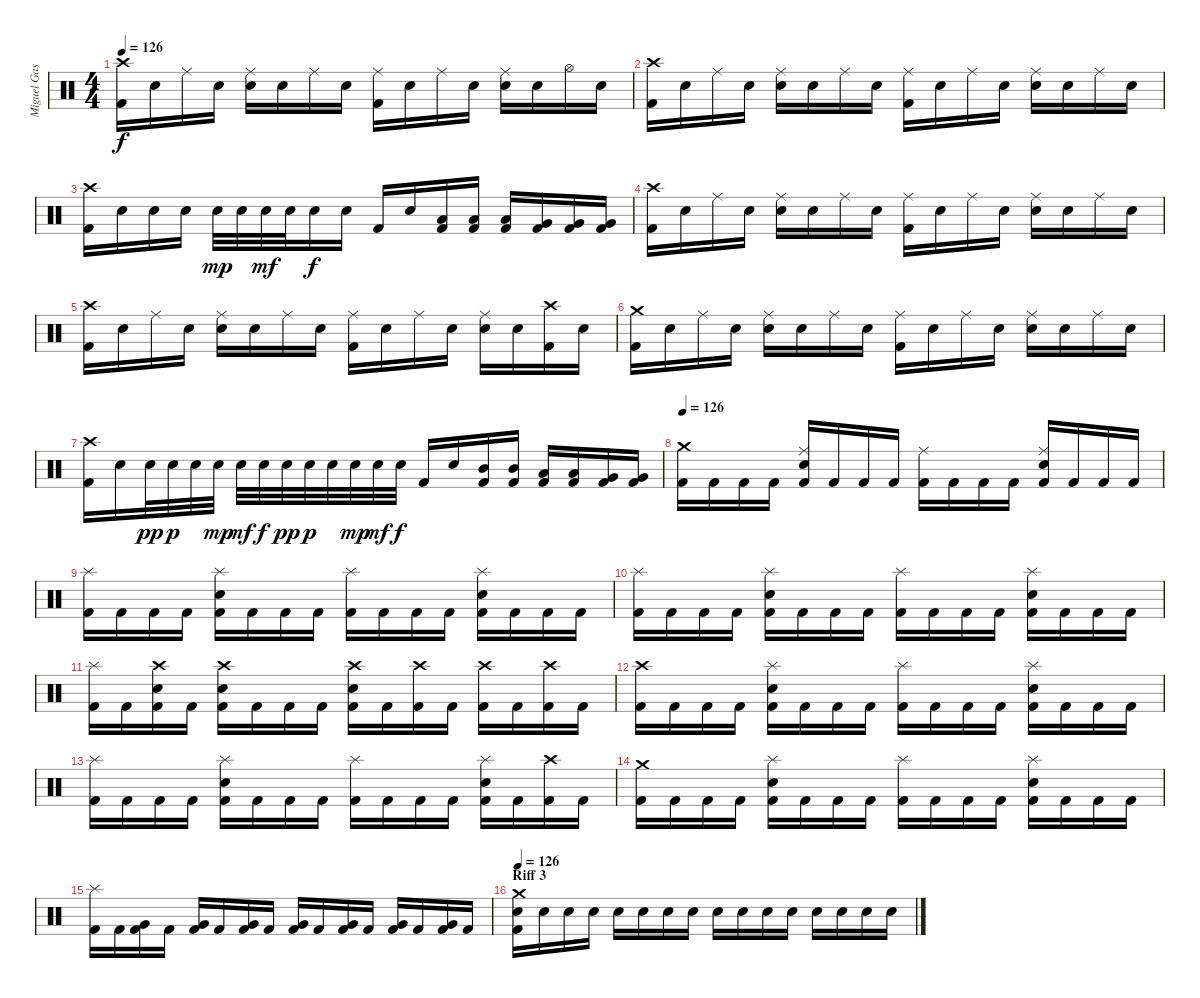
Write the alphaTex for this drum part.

\track ("Miguel Gaspar - Drums" "Miguel Gas") {instrument percussion}
\staff {score}
\articulation defaults
\ts (4 4)
\tempo 126
\clef neutral
\ks c
("Crash high (hit)" "Kick (hit) 2").16{dy f} "Snare (hit)".16 "Ride (middle)".16 "Snare (hit)".16 ("Ride (middle)" "Electric Snare (hit)").16 "Snare (hit)".16 "Ride (middle)".16 "Snare (hit)".16 ("Ride (middle)" "Kick (hit) 2").16 "Snare (hit)".16 "Ride (middle)".16 "Snare (hit)".16 ("Ride (middle)" "Electric Snare (hit)").16 "Snare (hit)".16 "Hi-Hat (open)".16 "Snare (hit)".16 |
("Crash high (hit)" "Kick (hit) 2").16 "Snare (hit)".16 "Ride (middle)".16 "Snare (hit)".16 ("Ride (middle)" "Electric Snare (hit)").16 "Snare (hit)".16 "Ride (middle)".16 "Snare (hit)".16 ("Ride (middle)" "Kick (hit) 2").16 "Snare (hit)".16 "Ride (middle)".16 "Snare (hit)".16 ("Ride (middle)" "Electric Snare (hit)").16 "Snare (hit)".16 "Ride (middle)".16 "Snare (hit)".16 |
("Crash high (hit)" "Kick (hit) 2").16 "Snare (hit)".16 "Snare (hit)".16 "Snare (hit)".16 "Electric Snare (hit)".32{dy mp} "Electric Snare (hit)".32 "Electric Snare (hit)".32{dy mf} "Electric Snare (hit)".32 "Electric Snare (hit)".16{dy f} "Snare (hit)".16 "Kick (hit) 2".16 "Snare (hit)".16 ("Low Tom (hit)" "Kick (hit) 2").16 ("Low Tom (hit)" "Kick (hit) 2").16 ("Low Tom (hit)" "Kick (hit) 2").16 ("Very Low Tom (hit)" "Kick (hit) 2").16 ("Very Low Tom (hit)" "Kick (hit) 2").16 ("Very Low Tom (hit)" "Kick (hit) 2").16 |
("Crash high (hit)" "Kick (hit) 2").16 "Snare (hit)".16 "Ride (middle)".16 "Snare (hit)".16 ("Ride (middle)" "Electric Snare (hit)").16 "Snare (hit)".16 "Ride (middle)".16 "Snare (hit)".16 ("Ride (middle)" "Kick (hit) 2").16 "Snare (hit)".16 "Ride (middle)".16 "Snare (hit)".16 ("Ride (middle)" "Electric Snare (hit)").16 "Snare (hit)".16 "Ride (middle)".16 "Snare (hit)".16 |
("Crash high (hit)" "Kick (hit) 2").16 "Snare (hit)".16 "Ride (middle)".16 "Snare (hit)".16 ("Ride (middle)" "Electric Snare (hit)").16 "Snare (hit)".16 "Ride (middle)".16 "Snare (hit)".16 ("Ride (middle)" "Kick (hit) 2").16 "Snare (hit)".16 "Ride (middle)".16 "Snare (hit)".16 ("Ride (middle)" "Electric Snare (hit)").16 "Snare (hit)".16 ("Crash high (hit)" "Kick (hit) 2").16 "Snare (hit)".16 |
("Crash medium (hit)" "Kick (hit) 2").16 "Snare (hit)".16 "Ride (middle)".16 "Snare (hit)".16 ("Ride (middle)" "Electric Snare (hit)").16 "Snare (hit)".16 "Ride (middle)".16 "Snare (hit)".16 ("Ride (middle)" "Kick (hit) 2").16 "Snare (hit)".16 "Ride (middle)".16 "Snare (hit)".16 ("Ride (middle)" "Electric Snare (hit)").16 "Snare (hit)".16 "Ride (middle)".16 "Snare (hit)".16 |
("Crash high (hit)" "Kick (hit) 2").16 "Snare (hit)".16 "Electric Snare (hit)".32{dy pp} "Electric Snare (hit)".32{dy p} "Electric Snare (hit)".32 "Electric Snare (hit)".32{dy mp} "Electric Snare (hit)".32{dy mf} "Electric Snare (hit)".32{dy f} "Electric Snare (hit)".32{dy pp} "Electric Snare (hit)".32{dy p} "Electric Snare (hit)".32 "Electric Snare (hit)".32{dy mp} "Electric Snare (hit)".32{dy mf} "Electric Snare (hit)".32{dy f} "Kick (hit) 2".16 "Snare (hit)".16 ("Mid Tom (hit)" "Kick (hit) 2").16 ("Mid Tom (hit)" "Kick (hit) 2").16 ("Low Tom (hit)" "Kick (hit) 2").16 ("Low Tom (hit)" "Kick (hit) 2").16 ("Very Low Tom (hit)" "Kick (hit) 2").16 ("Very Low Tom (hit)" "Kick (hit) 2").16 |
\section ("" "")
\tempo 126
("Crash medium (hit)" "Kick (hit) 2").16{volume 16 balance 8} "Kick (hit) 2".16 "Kick (hit) 2".16 "Kick (hit) 2".16 ("Ride (middle)" "Electric Snare (hit)" "Kick (hit) 2").16 "Kick (hit) 2".16 "Kick (hit) 2".16 "Kick (hit) 2".16 ("Ride (middle)" "Kick (hit) 2").16 "Kick (hit) 2".16 "Kick (hit) 2".16 "Kick (hit) 2".16 ("Ride (middle)" "Electric Snare (hit)" "Kick (hit) 2").16 "Kick (hit) 2".16 "Kick (hit) 2".16 "Kick (hit) 2".16 |
("Splash (hit)" "Kick (hit) 2").16 "Kick (hit) 2".16 "Kick (hit) 2".16 "Kick (hit) 2".16 ("Splash (hit)" "Electric Snare (hit)" "Kick (hit) 2").16 "Kick (hit) 2".16 "Kick (hit) 2".16 "Kick (hit) 2".16 ("Splash (hit)" "Kick (hit) 2").16 "Kick (hit) 2".16 "Kick (hit) 2".16 "Kick (hit) 2".16 ("Splash (hit)" "Electric Snare (hit)" "Kick (hit) 2").16 "Kick (hit) 2".16 "Kick (hit) 2".16 "Kick (hit) 2".16 |
("Splash (hit)" "Kick (hit) 2").16 "Kick (hit) 2".16 "Kick (hit) 2".16 "Kick (hit) 2".16 ("Splash (hit)" "Electric Snare (hit)" "Kick (hit) 2").16 "Kick (hit) 2".16 "Kick (hit) 2".16 "Kick (hit) 2".16 ("Splash (hit)" "Kick (hit) 2").16 "Kick (hit) 2".16 "Kick (hit) 2".16 "Kick (hit) 2".16 ("Splash (hit)" "Electric Snare (hit)" "Kick (hit) 2").16 "Kick (hit) 2".16 "Kick (hit) 2".16 "Kick (hit) 2".16 |
("Splash (hit)" "Kick (hit) 2").16 "Kick (hit) 2".16 ("Crash high (hit)" "Electric Snare (hit)" "Kick (hit) 2").16 "Kick (hit) 2".16 ("Crash high (hit)" "Electric Snare (hit)" "Kick (hit) 2").16 "Kick (hit) 2".16 "Kick (hit) 2".16 "Kick (hit) 2".16 ("Crash high (hit)" "Electric Snare (hit)" "Kick (hit) 2").16 "Kick (hit) 2".16 ("Crash high (hit)" "Kick (hit) 2").16 "Kick (hit) 2".16 ("Crash high (hit)" "Kick (hit) 2").16 "Kick (hit) 2".16 ("Crash high (hit)" "Kick (hit) 2").16 "Kick (hit) 2".16 |
("Crash high (hit)" "Kick (hit) 2").16 "Kick (hit) 2".16 "Kick (hit) 2".16 "Kick (hit) 2".16 ("Splash (hit)" "Electric Snare (hit)" "Kick (hit) 2").16 "Kick (hit) 2".16 "Kick (hit) 2".16 "Kick (hit) 2".16 ("Splash (hit)" "Kick (hit) 2").16 "Kick (hit) 2".16 "Kick (hit) 2".16 "Kick (hit) 2".16 ("Splash (hit)" "Electric Snare (hit)" "Kick (hit) 2").16 "Kick (hit) 2".16 "Kick (hit) 2".16 "Kick (hit) 2".16 |
("Splash (hit)" "Kick (hit) 2").16 "Kick (hit) 2".16 "Kick (hit) 2".16 "Kick (hit) 2".16 ("Splash (hit)" "Electric Snare (hit)" "Kick (hit) 2").16 "Kick (hit) 2".16 "Kick (hit) 2".16 "Kick (hit) 2".16 ("Splash (hit)" "Kick (hit) 2").16 "Kick (hit) 2".16 "Kick (hit) 2".16 "Kick (hit) 2".16 ("Splash (hit)" "Electric Snare (hit)" "Kick (hit) 2").16 "Kick (hit) 2".16 ("Crash high (hit)" "Kick (hit) 2").16 "Kick (hit) 2".16 |
("Crash medium (hit)" "Kick (hit) 2").16 "Kick (hit) 2".16 "Kick (hit) 2".16 "Kick (hit) 2".16 ("Splash (hit)" "Electric Snare (hit)" "Kick (hit) 2").16 "Kick (hit) 2".16 "Kick (hit) 2".16 "Kick (hit) 2".16 ("Splash (hit)" "Kick (hit) 2").16 "Kick (hit) 2".16 "Kick (hit) 2".16 "Kick (hit) 2".16 ("Splash (hit)" "Electric Snare (hit)" "Kick (hit) 2").16 "Kick (hit) 2".16 "Kick (hit) 2".16 "Kick (hit) 2".16 |
("Splash (hit)" "Kick (hit) 2").16 "Kick (hit) 2".16 ("Very Low Tom (hit)" "Kick (hit) 2").16 "Kick (hit) 2".16 ("Very Low Tom (hit)" "Kick (hit) 2").16 "Kick (hit) 2".16 ("Very Low Tom (hit)" "Kick (hit) 2").16 "Kick (hit) 2".16 ("Very Low Tom (hit)" "Kick (hit) 2").16 "Kick (hit) 2".16 ("Very Low Tom (hit)" "Kick (hit) 2").16 "Kick (hit) 2".16 ("Very Low Tom (hit)" "Kick (hit) 2").16 "Kick (hit) 2".16 ("Very Low Tom (hit)" "Kick (hit) 2").16 "Kick (hit) 2".16 |
\section ("" "Riff 3")
\tempo 126
("Crash medium (hit)" "Electric Snare (hit)" "Kick (hit) 2").16{volume 12 balance 8} "Snare (hit)".16 "Snare (hit)".16 "Snare (hit)".16 "Snare (hit)".16 "Snare (hit)".16 "Snare (hit)".16 "Snare (hit)".16 "Snare (hit)".16 "Snare (hit)".16 "Snare (hit)".16 "Snare (hit)".16 "Snare (hit)".16 "Snare (hit)".16 "Snare (hit)".16 "Snare (hit)".16
